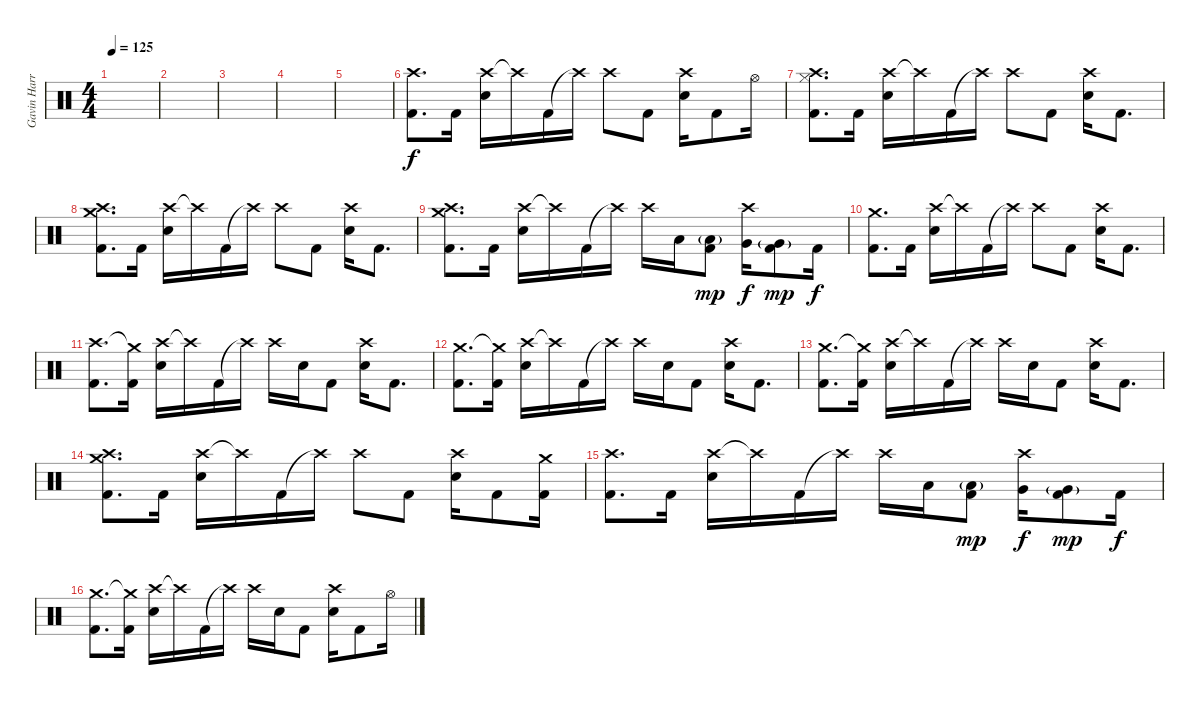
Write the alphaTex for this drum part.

\track ("Gavin Harrison" "Gavin Harr") {instrument percussion}
\staff {score}
\articulation defaults
\ts (4 4)
\tempo 125
\clef neutral
\ks c
|
|
|
|
|
("Crash high (hit)" "Kick (hit) 2").8{d} "Kick (hit) 2".16 ("Crash high (hit)" "Electric Snare (hit)").16 "Crash high (hit)"{t}.16 "Kick (hit) 2".16 "Crash high (hit)"{t}.16 "Crash high (hit)".8 "Kick (hit) 2".8 ("Crash high (hit)" "Electric Snare (hit)").16 "Kick (hit) 2".8 "Hi-Hat (open)".16 |
("Crash high (hit)" "Hi-Hat (closed)" "Kick (hit) 2").8{d} "Kick (hit) 2".16 ("Crash high (hit)" "Electric Snare (hit)").16 "Crash high (hit)"{t}.16 "Kick (hit) 2".16 "Crash high (hit)"{t}.16 "Crash high (hit)".8 "Kick (hit) 2".8 ("Crash high (hit)" "Electric Snare (hit)").16 "Kick (hit) 2".8{d} |
("Crash high (hit)" "Crash medium (hit)" "Kick (hit) 2").8{d} "Kick (hit) 2".16 ("Crash high (hit)" "Electric Snare (hit)").16 "Crash high (hit)"{t}.16 "Kick (hit) 2".16 "Crash high (hit)"{t}.16 "Crash high (hit)".8 "Kick (hit) 2".8 ("Crash high (hit)" "Electric Snare (hit)").16 "Kick (hit) 2".8{d} |
("Crash high (hit)" "Crash medium (hit)" "Kick (hit) 2").8{d} "Kick (hit) 2".16 ("Crash high (hit)" "Electric Snare (hit)").16 "Crash high (hit)"{t}.16 "Kick (hit) 2".16 "Crash high (hit)"{t}.16 "Crash high (hit)".16 "Low Tom (hit)".16 ("Low Tom (hit)"{g} "Kick (hit) 2").8{dy mp} ("Crash high (hit)" "Very Low Tom (hit)").16{dy f} ("Very Low Tom (hit)"{g} "Kick (hit) 2").8{dy mp} "Kick (hit) 2".16{dy f} |
("Crash medium (hit)" "Kick (hit) 2").8{d} "Kick (hit) 2".16 ("Crash high (hit)" "Electric Snare (hit)").16 "Crash high (hit)"{t}.16 "Kick (hit) 2".16 "Crash high (hit)"{t}.16 "Crash high (hit)".8 "Kick (hit) 2".8 ("Crash high (hit)" "Electric Snare (hit)").16 "Kick (hit) 2".8{d} |
("Crash high (hit)" "Kick (hit) 2").8{d} ("Crash medium (hit)"{t} "Kick (hit) 2").16 ("Crash high (hit)" "Electric Snare (hit)").16 "Crash high (hit)"{t}.16 "Kick (hit) 2".16 "Crash high (hit)"{t}.16 "Crash high (hit)".16 "Electric Snare (hit)".16 "Kick (hit) 2".8 ("Crash high (hit)" "Electric Snare (hit)").16 "Kick (hit) 2".8{d} |
("Crash medium (hit)" "Kick (hit) 2").8{d} ("Crash medium (hit)"{t} "Kick (hit) 2").16 ("Crash high (hit)" "Electric Snare (hit)").16 "Crash high (hit)"{t}.16 "Kick (hit) 2".16 "Crash high (hit)"{t}.16 "Crash high (hit)".16 "Electric Snare (hit)".16 "Kick (hit) 2".8 ("Crash high (hit)" "Electric Snare (hit)").16 "Kick (hit) 2".8{d} |
("Crash medium (hit)" "Kick (hit) 2").8{d} ("Crash medium (hit)"{t} "Kick (hit) 2").16 ("Crash high (hit)" "Electric Snare (hit)").16 "Crash high (hit)"{t}.16 "Kick (hit) 2".16 "Crash high (hit)"{t}.16 "Crash high (hit)".16 "Electric Snare (hit)".16 "Kick (hit) 2".8 ("Crash high (hit)" "Electric Snare (hit)").16 "Kick (hit) 2".8{d} |
("Crash medium (hit)" "Crash high (hit)" "Kick (hit) 2").8{d} "Kick (hit) 2".16 ("Crash high (hit)" "Electric Snare (hit)").16 "Crash high (hit)"{t}.16 "Kick (hit) 2".16 "Crash high (hit)"{t}.16 "Crash high (hit)".8 "Kick (hit) 2".8 ("Crash high (hit)" "Electric Snare (hit)").16 "Kick (hit) 2".8 ("Crash medium (hit)" "Kick (hit) 2").16 |
("Crash high (hit)" "Kick (hit) 2").8{d} "Kick (hit) 2".16 ("Crash high (hit)" "Electric Snare (hit)").16 "Crash high (hit)"{t}.16 "Kick (hit) 2".16 "Crash high (hit)"{t}.16 "Crash high (hit)".16 "Low Tom (hit)".16 ("Low Tom (hit)"{g} "Kick (hit) 2").8{dy mp} ("Crash high (hit)" "Very Low Tom (hit)").16{dy f} ("Very Low Tom (hit)"{g} "Kick (hit) 2").8{dy mp} "Kick (hit) 2".16{dy f} |
("Crash medium (hit)" "Kick (hit) 2").8{d} ("Crash medium (hit)"{t} "Kick (hit) 2").16 ("Crash high (hit)" "Electric Snare (hit)").16 "Crash high (hit)"{t}.16 "Kick (hit) 2".16 "Crash high (hit)"{t}.16 "Crash high (hit)".16 "Electric Snare (hit)".16 "Kick (hit) 2".8 ("Crash high (hit)" "Electric Snare (hit)").16 "Kick (hit) 2".8 "Hi-Hat (open)".16
